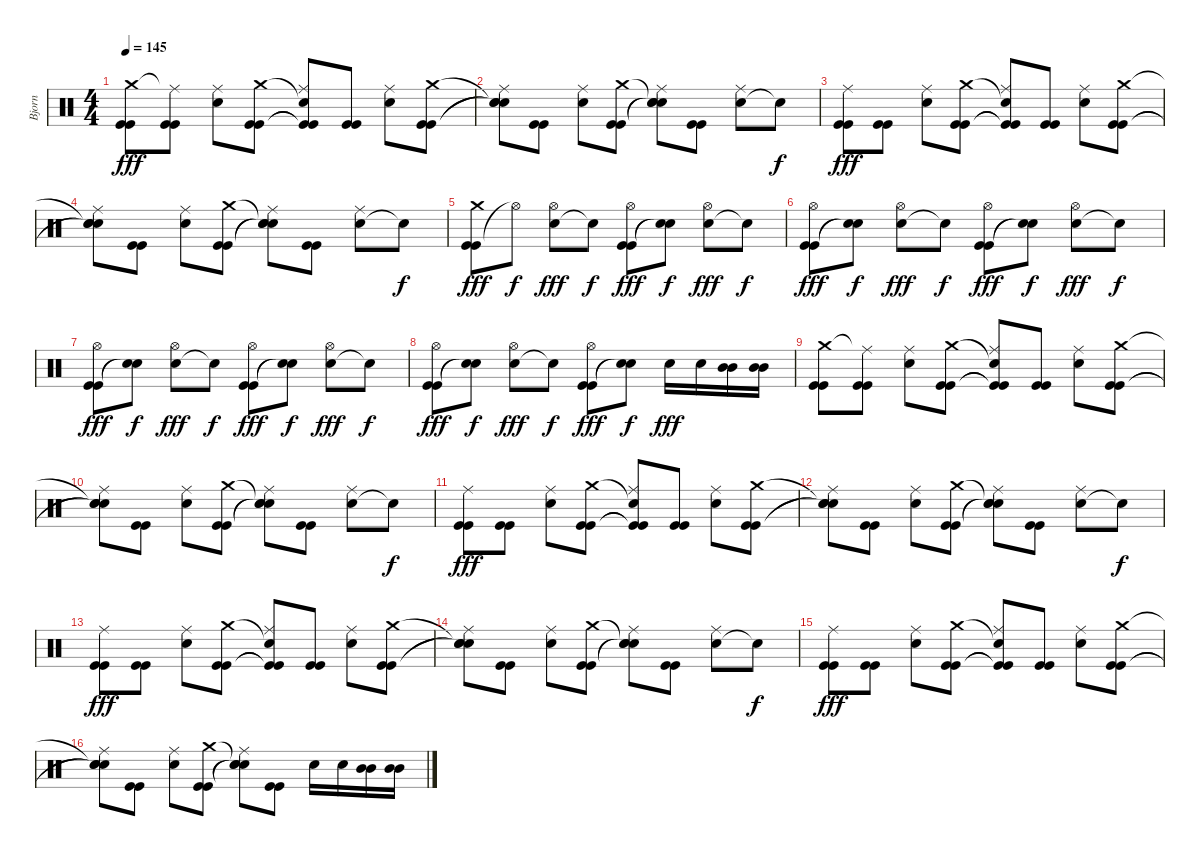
\track ("Bjorn" "Bjorn") {instrument percussion}
\staff {score}
\articulation defaults
\ts (4 4)
\tempo 145
\clef neutral
\ks c
("Kick (hit)" "Kick (hit)" "Crash medium (hit)").8{dy fff} ("Kick (hit)" "Kick (hit)" "Ride (middle)"{t}).8 ("Snare (hit) 2" "Ride (middle)").8 ("Kick (hit)" "Kick (hit)" "Crash medium (hit)").8 ("Kick (hit)"{t} "Kick (hit)"{t} "Snare (hit)"{t} "Ride (middle)").8 ("Kick (hit)" "Kick (hit)").8 ("Snare (hit) 2" "Ride (middle)").8 ("Kick (hit)" "Kick (hit)" "Crash medium (hit)").8 |
("Snare (hit)"{t} "Snare (hit)"{t} "Snare (hit)"{t} "Ride (middle)").8 ("Kick (hit)" "Kick (hit)").8 ("Snare (hit) 2" "Ride (middle)").8 ("Kick (hit)" "Kick (hit)" "Crash medium (hit)").8 ("Snare (hit)"{t} "Snare (hit)"{t} "Snare (hit)"{t} "Ride (middle)").8 ("Kick (hit)" "Kick (hit)").8 ("Snare (hit) 2" "Ride (middle)").8 "Snare (hit)"{t}.8{dy f} |
("Kick (hit)" "Kick (hit)" "Ride (middle)").8{dy fff} ("Kick (hit)" "Kick (hit)").8 ("Snare (hit) 2" "Ride (middle)").8 ("Kick (hit)" "Kick (hit)" "Crash medium (hit)").8 ("Kick (hit)"{t} "Kick (hit)"{t} "Snare (hit)"{t} "Ride (middle)").8 ("Kick (hit)" "Kick (hit)").8 ("Snare (hit) 2" "Ride (middle)").8 ("Kick (hit)" "Kick (hit)" "Crash medium (hit)").8 |
("Snare (hit)"{t} "Snare (hit)"{t} "Snare (hit)"{t} "Ride (middle)").8 ("Kick (hit)" "Kick (hit)").8 ("Snare (hit) 2" "Ride (middle)").8 ("Kick (hit)" "Kick (hit)" "Crash medium (hit)").8 ("Snare (hit)"{t} "Snare (hit)"{t} "Snare (hit)"{t} "Ride (middle)").8 ("Kick (hit)" "Kick (hit)").8 ("Snare (hit) 2" "Ride (middle)").8 "Snare (hit)"{t}.8{dy f} |
("Kick (hit)" "Kick (hit)" "Crash medium (hit)").8{dy fff} "Hi-Hat (open)"{t}.8{dy f} ("Snare (hit) 2" "Hi-Hat (open)").8{dy fff} "Snare (hit)"{t}.8{dy f} ("Kick (hit)" "Kick (hit)" "Hi-Hat (open)").8{dy fff} ("Snare (hit)"{t} "Snare (hit)"{t}).8{dy f} ("Snare (hit) 2" "Hi-Hat (open)").8{dy fff} "Snare (hit)"{t}.8{dy f} |
("Kick (hit)" "Kick (hit)" "Hi-Hat (open)").8{dy fff} ("Snare (hit)"{t} "Snare (hit)"{t}).8{dy f} ("Snare (hit) 2" "Hi-Hat (open)").8{dy fff} "Snare (hit)"{t}.8{dy f} ("Kick (hit)" "Kick (hit)" "Hi-Hat (open)").8{dy fff} ("Snare (hit)"{t} "Snare (hit)"{t}).8{dy f} ("Snare (hit) 2" "Hi-Hat (open)").8{dy fff} "Snare (hit)"{t}.8{dy f} |
("Kick (hit)" "Kick (hit)" "Hi-Hat (open)").8{dy fff} ("Snare (hit)"{t} "Snare (hit)"{t}).8{dy f} ("Snare (hit) 2" "Hi-Hat (open)").8{dy fff} "Snare (hit)"{t}.8{dy f} ("Kick (hit)" "Kick (hit)" "Hi-Hat (open)").8{dy fff} ("Snare (hit)"{t} "Snare (hit)"{t}).8{dy f} ("Snare (hit) 2" "Hi-Hat (open)").8{dy fff} "Snare (hit)"{t}.8{dy f} |
("Kick (hit)" "Kick (hit)" "Hi-Hat (open)").8{dy fff} ("Snare (hit)"{t} "Snare (hit)"{t}).8{dy f} ("Snare (hit) 2" "Hi-Hat (open)").8{dy fff} "Snare (hit)"{t}.8{dy f} ("Kick (hit)" "Kick (hit)" "Hi-Hat (open)").8{dy fff} ("Snare (hit)"{t} "Snare (hit)"{t}).8{dy f} "Snare (hit) 2".16{dy fff} "Snare (hit) 2".16 ("Mid Tom (hit)" "Mid Tom (hit)").16 ("Mid Tom (hit)" "Mid Tom (hit)").16 |
("Kick (hit)" "Kick (hit)" "Crash medium (hit)").8 ("Kick (hit)" "Kick (hit)" "Ride (middle)"{t}).8 ("Snare (hit) 2" "Ride (middle)").8 ("Kick (hit)" "Kick (hit)" "Crash medium (hit)").8 ("Kick (hit)"{t} "Kick (hit)"{t} "Snare (hit)"{t} "Ride (middle)").8 ("Kick (hit)" "Kick (hit)").8 ("Snare (hit) 2" "Ride (middle)").8 ("Kick (hit)" "Kick (hit)" "Crash medium (hit)").8 |
("Snare (hit)"{t} "Snare (hit)"{t} "Snare (hit)"{t} "Ride (middle)").8 ("Kick (hit)" "Kick (hit)").8 ("Snare (hit) 2" "Ride (middle)").8 ("Kick (hit)" "Kick (hit)" "Crash medium (hit)").8 ("Snare (hit)"{t} "Snare (hit)"{t} "Snare (hit)"{t} "Ride (middle)").8 ("Kick (hit)" "Kick (hit)").8 ("Snare (hit) 2" "Ride (middle)").8 "Snare (hit)"{t}.8{dy f} |
("Kick (hit)" "Kick (hit)" "Ride (middle)").8{dy fff} ("Kick (hit)" "Kick (hit)").8 ("Snare (hit) 2" "Ride (middle)").8 ("Kick (hit)" "Kick (hit)" "Crash medium (hit)").8 ("Kick (hit)"{t} "Kick (hit)"{t} "Snare (hit)"{t} "Ride (middle)").8 ("Kick (hit)" "Kick (hit)").8 ("Snare (hit) 2" "Ride (middle)").8 ("Kick (hit)" "Kick (hit)" "Crash medium (hit)").8 |
("Snare (hit)"{t} "Snare (hit)"{t} "Snare (hit)"{t} "Ride (middle)").8 ("Kick (hit)" "Kick (hit)").8 ("Snare (hit) 2" "Ride (middle)").8 ("Kick (hit)" "Kick (hit)" "Crash medium (hit)").8 ("Snare (hit)"{t} "Snare (hit)"{t} "Snare (hit)"{t} "Ride (middle)").8 ("Kick (hit)" "Kick (hit)").8 ("Snare (hit) 2" "Ride (middle)").8 "Snare (hit)"{t}.8{dy f} |
("Kick (hit)" "Kick (hit)" "Ride (middle)").8{dy fff} ("Kick (hit)" "Kick (hit)").8 ("Snare (hit) 2" "Ride (middle)").8 ("Kick (hit)" "Kick (hit)" "Crash medium (hit)").8 ("Kick (hit)"{t} "Kick (hit)"{t} "Snare (hit)"{t} "Ride (middle)").8 ("Kick (hit)" "Kick (hit)").8 ("Snare (hit) 2" "Ride (middle)").8 ("Kick (hit)" "Kick (hit)" "Crash medium (hit)").8 |
("Snare (hit)"{t} "Snare (hit)"{t} "Snare (hit)"{t} "Ride (middle)").8 ("Kick (hit)" "Kick (hit)").8 ("Snare (hit) 2" "Ride (middle)").8 ("Kick (hit)" "Kick (hit)" "Crash medium (hit)").8 ("Snare (hit)"{t} "Snare (hit)"{t} "Snare (hit)"{t} "Ride (middle)").8 ("Kick (hit)" "Kick (hit)").8 ("Snare (hit) 2" "Ride (middle)").8 "Snare (hit)"{t}.8{dy f} |
("Kick (hit)" "Kick (hit)" "Ride (middle)").8{dy fff} ("Kick (hit)" "Kick (hit)").8 ("Snare (hit) 2" "Ride (middle)").8 ("Kick (hit)" "Kick (hit)" "Crash medium (hit)").8 ("Kick (hit)"{t} "Kick (hit)"{t} "Snare (hit)"{t} "Ride (middle)").8 ("Kick (hit)" "Kick (hit)").8 ("Snare (hit) 2" "Ride (middle)").8 ("Kick (hit)" "Kick (hit)" "Crash medium (hit)").8 |
("Snare (hit)"{t} "Snare (hit)"{t} "Snare (hit)"{t} "Ride (middle)").8 ("Kick (hit)" "Kick (hit)").8 ("Snare (hit) 2" "Ride (middle)").8 ("Kick (hit)" "Kick (hit)" "Crash medium (hit)").8 ("Snare (hit)"{t} "Snare (hit)"{t} "Snare (hit)"{t} "Ride (middle)").8 ("Kick (hit)" "Kick (hit)").8 "Snare (hit) 2".16 "Snare (hit) 2".16 ("Mid Tom (hit)" "Mid Tom (hit)").16 ("Mid Tom (hit)" "Mid Tom (hit)").16
